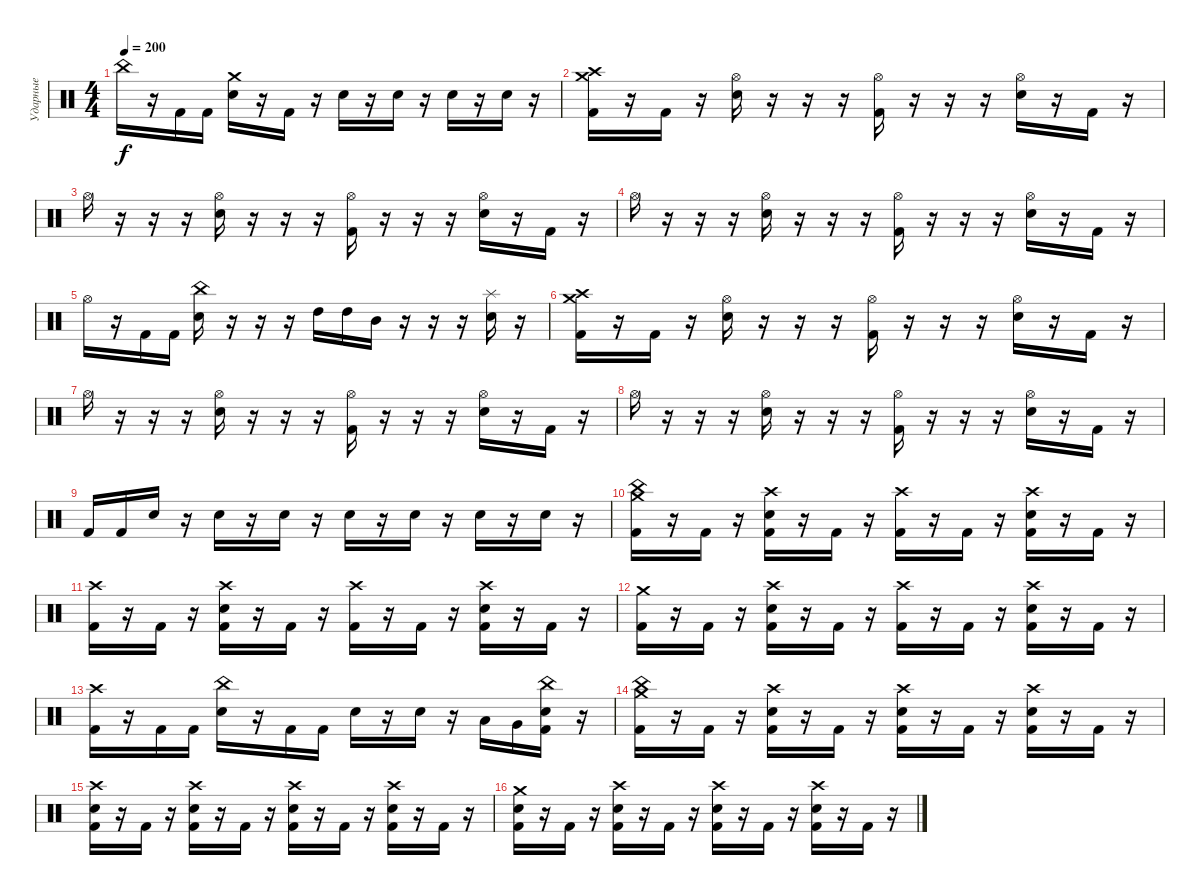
\track ("Ударные" "Ударные") {instrument percussion}
\staff {score}
\articulation defaults
\ts (4 4)
\tempo 200
\clef neutral
\ks c "China (hit)".16{dy f}
r.16 "Kick (hit) 2".16 "Kick (hit) 2".16 ("Electric Snare (hit)" "Crash medium (hit)").16 r.16 "Kick (hit) 2".16 r.16 "Electric Snare (hit)".16 r.16 "Electric Snare (hit)".16 r.16 "Electric Snare (hit)".16 r.16 "Electric Snare (hit)".16 r.16 |
("Kick (hit) 2" "Crash high (hit)" "Crash medium (hit)").16 r.16 "Kick (hit) 2".16 r.16 ("Electric Snare (hit)" "Hi-Hat (open)").16 r.16 r.16 r.16 ("Kick (hit) 2" "Hi-Hat (open)").16 r.16 r.16 r.16 ("Electric Snare (hit)" "Hi-Hat (open)").16 r.16 "Kick (hit) 2".16 r.16 |
"Hi-Hat (open)".16 r.16 r.16 r.16 ("Electric Snare (hit)" "Hi-Hat (open)").16 r.16 r.16 r.16 ("Kick (hit) 2" "Hi-Hat (open)").16 r.16 r.16 r.16 ("Electric Snare (hit)" "Hi-Hat (open)").16 r.16 "Kick (hit) 2".16 r.16 |
"Hi-Hat (open)".16 r.16 r.16 r.16 ("Electric Snare (hit)" "Hi-Hat (open)").16 r.16 r.16 r.16 ("Kick (hit) 2" "Hi-Hat (open)").16 r.16 r.16 r.16 ("Electric Snare (hit)" "Hi-Hat (open)").16 r.16 "Kick (hit) 2".16 r.16 |
"Hi-Hat (open)".16 r.16 "Kick (hit) 2".16 "Kick (hit) 2".16 ("Electric Snare (hit)" "China (hit)").16 r.16 r.16 r.16 "High Tom (hit)".16 "High Tom (hit)".16 "Mid Tom (hit)".16 r.16 r.16 r.16 ("Electric Snare (hit)" "Splash (hit)").16 r.16 |
("Kick (hit) 2" "Crash high (hit)" "Crash medium (hit)").16 r.16 "Kick (hit) 2".16 r.16 ("Electric Snare (hit)" "Hi-Hat (open)").16 r.16 r.16 r.16 ("Kick (hit) 2" "Hi-Hat (open)").16 r.16 r.16 r.16 ("Electric Snare (hit)" "Hi-Hat (open)").16 r.16 "Kick (hit) 2".16 r.16 |
"Hi-Hat (open)".16 r.16 r.16 r.16 ("Electric Snare (hit)" "Hi-Hat (open)").16 r.16 r.16 r.16 ("Kick (hit) 2" "Hi-Hat (open)").16 r.16 r.16 r.16 ("Electric Snare (hit)" "Hi-Hat (open)").16 r.16 "Kick (hit) 2".16 r.16 |
"Hi-Hat (open)".16 r.16 r.16 r.16 ("Electric Snare (hit)" "Hi-Hat (open)").16 r.16 r.16 r.16 ("Kick (hit) 2" "Hi-Hat (open)").16 r.16 r.16 r.16 ("Electric Snare (hit)" "Hi-Hat (open)").16 r.16 "Kick (hit) 2".16 r.16 |
"Kick (hit) 2".16 "Kick (hit) 2".16 "Electric Snare (hit)".16 r.16 "Electric Snare (hit)".16 r.16 "Electric Snare (hit)".16 r.16 "Electric Snare (hit)".16 r.16 "Electric Snare (hit)".16 r.16 "Electric Snare (hit)".16 r.16 "Electric Snare (hit)".16 r.16 |
("Kick (hit) 2" "China (hit)" "Crash medium (hit)").16 r.16 "Kick (hit) 2".16 r.16 ("Kick (hit) 2" "Electric Snare (hit)" "Crash high (hit)").16 r.16 "Kick (hit) 2".16 r.16 ("Kick (hit) 2" "Crash high (hit)").16 r.16 "Kick (hit) 2".16 r.16 ("Kick (hit) 2" "Electric Snare (hit)" "Crash high (hit)").16 r.16 "Kick (hit) 2".16 r.16 |
("Kick (hit) 2" "Crash high (hit)").16 r.16 "Kick (hit) 2".16 r.16 ("Kick (hit) 2" "Electric Snare (hit)" "Crash high (hit)").16 r.16 "Kick (hit) 2".16 r.16 ("Kick (hit) 2" "Crash high (hit)").16 r.16 "Kick (hit) 2".16 r.16 ("Kick (hit) 2" "Electric Snare (hit)" "Crash high (hit)").16 r.16 "Kick (hit) 2".16 r.16 |
("Kick (hit) 2" "Crash medium (hit)").16 r.16 "Kick (hit) 2".16 r.16 ("Kick (hit) 2" "Electric Snare (hit)" "Crash high (hit)").16 r.16 "Kick (hit) 2".16 r.16 ("Kick (hit) 2" "Crash high (hit)").16 r.16 "Kick (hit) 2".16 r.16 ("Kick (hit) 2" "Electric Snare (hit)" "Crash high (hit)").16 r.16 "Kick (hit) 2".16 r.16 |
("Kick (hit) 2" "Crash high (hit)").16 r.16 "Kick (hit) 2".16 "Kick (hit) 2".16 ("Electric Snare (hit)" "China (hit)").16 r.16 "Kick (hit) 2".16 "Kick (hit) 2".16 "Electric Snare (hit)".16 r.16 "Electric Snare (hit)".16 r.16 "Low Tom (hit)".16 "Very Low Tom (hit)".16 ("Kick (hit) 2" "Electric Snare (hit)" "China (hit)").16 r.16 |
("Kick (hit) 2" "China (hit)" "Crash medium (hit)").16 r.16 "Kick (hit) 2".16 r.16 ("Kick (hit) 2" "Electric Snare (hit)" "Crash high (hit)").16 r.16 "Kick (hit) 2".16 r.16 ("Kick (hit) 2" "Electric Snare (hit)" "Crash high (hit)").16 r.16 "Kick (hit) 2".16 r.16 ("Kick (hit) 2" "Electric Snare (hit)" "Crash high (hit)").16 r.16 "Kick (hit) 2".16 r.16 |
("Kick (hit) 2" "Electric Snare (hit)" "Crash high (hit)").16 r.16 "Kick (hit) 2".16 r.16 ("Kick (hit) 2" "Electric Snare (hit)" "Crash high (hit)").16 r.16 "Kick (hit) 2".16 r.16 ("Kick (hit) 2" "Electric Snare (hit)" "Crash high (hit)").16 r.16 "Kick (hit) 2".16 r.16 ("Kick (hit) 2" "Electric Snare (hit)" "Crash high (hit)").16 r.16 "Kick (hit) 2".16 r.16 |
("Kick (hit) 2" "Electric Snare (hit)" "Crash medium (hit)").16 r.16 "Kick (hit) 2".16 r.16 ("Kick (hit) 2" "Electric Snare (hit)" "Crash high (hit)").16 r.16 "Kick (hit) 2".16 r.16 ("Kick (hit) 2" "Electric Snare (hit)" "Crash high (hit)").16 r.16 "Kick (hit) 2".16 r.16 ("Kick (hit) 2" "Electric Snare (hit)" "Crash high (hit)").16 r.16 "Kick (hit) 2".16 r.16
